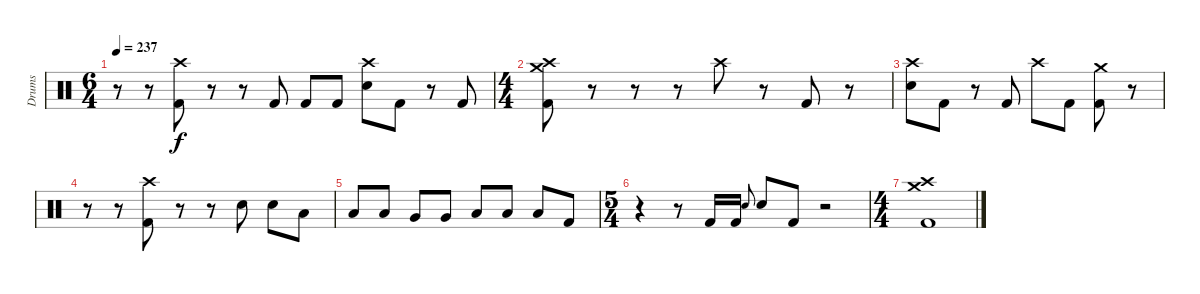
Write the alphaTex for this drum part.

\track ("Drums" "Drums") {instrument percussion}
\staff {score}
\articulation defaults
\ts (6 4)
\tempo 237
\clef neutral
\ks c
r.8{dy f} r.8 ("Crash high (hit)" "Kick (hit) 2").8 r.8 r.8 "Kick (hit) 2".8 "Kick (hit) 2".8 "Kick (hit) 2".8 ("Crash high (hit)" "Electric Snare (hit)").8 "Kick (hit) 2".8 r.8 "Kick (hit) 2".8 |
\ts (4 4)
("Crash high (hit)" "Crash medium (hit)" "Kick (hit) 2").8 r.8 r.8 r.8 "Crash high (hit)".8 r.8 "Kick (hit) 2".8 r.8 |
("Crash high (hit)" "Electric Snare (hit)").8 "Kick (hit) 2".8 r.8 "Kick (hit) 2".8 "Crash high (hit)".8 "Kick (hit) 2".8 ("Crash medium (hit)" "Kick (hit) 2").8 r.8 |
r.8 r.8 ("Crash high (hit)" "Kick (hit) 2").8 r.8 r.8 "Electric Snare (hit)".8 "Electric Snare (hit)".8 "Low Tom (hit)".8 |
"Low Tom (hit)".8 "Low Tom (hit)".8 "Very Low Tom (hit)".8 "Very Low Tom (hit)".8 "Low Floor Tom (hit)".8 "Low Floor Tom (hit)".8 "Low Floor Tom (hit)".8 "Kick (hit) 2".8 |
\ts (5 4)
r.4 r.8 "Kick (hit) 2".16 "Kick (hit) 2".16 "Electric Snare (hit)".8{gr onbeat} "Electric Snare (hit)".8 "Kick (hit) 2".8 r.2 |
\ts (4 4)
("Crash medium (hit)" "Crash high (hit)" "Kick (hit) 2").1
